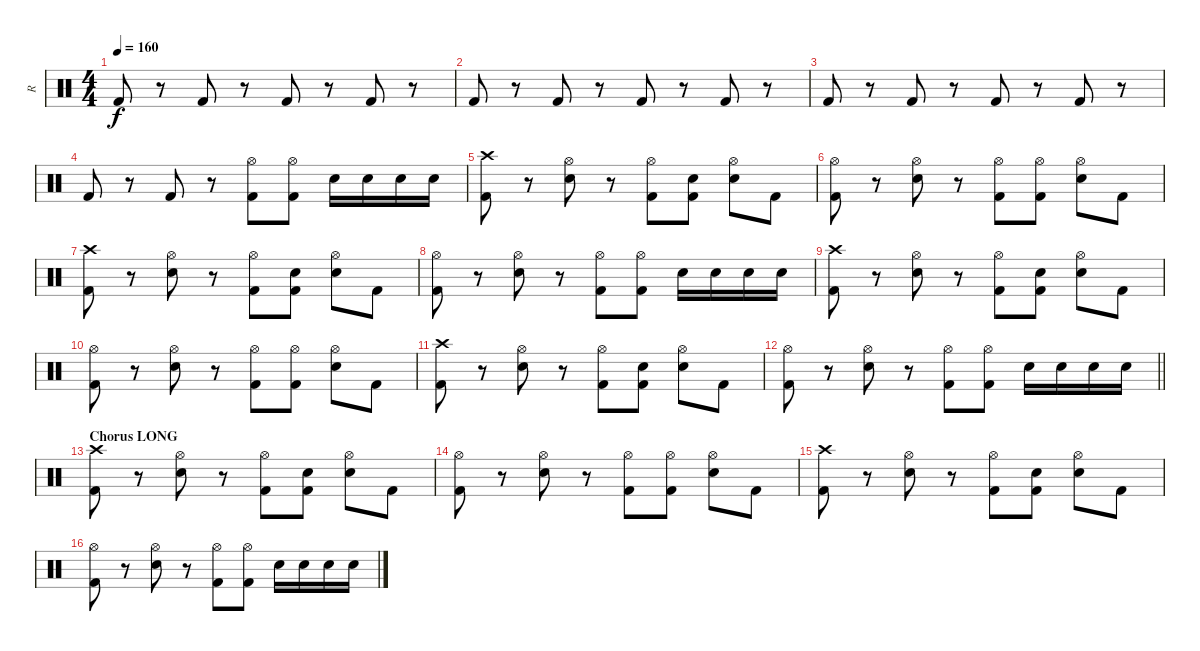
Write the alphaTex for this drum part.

\track ("R" "R") {instrument percussion}
\staff {score}
\articulation defaults
\ts (4 4)
\tempo 160
\clef neutral
\ks c "Kick (hit) 2".8{dy f}
r.8 "Kick (hit) 2".8 r.8 "Kick (hit) 2".8 r.8 "Kick (hit) 2".8 r.8 |
"Kick (hit) 2".8 r.8 "Kick (hit) 2".8 r.8 "Kick (hit) 2".8 r.8 "Kick (hit) 2".8 r.8 |
"Kick (hit) 2".8 r.8 "Kick (hit) 2".8 r.8 "Kick (hit) 2".8 r.8 "Kick (hit) 2".8 r.8 |
"Kick (hit) 2".8 r.8 "Kick (hit) 2".8 r.8 ("Hi-Hat (open)" "Kick (hit) 2").8 ("Hi-Hat (open)" "Kick (hit) 2").8 "Electric Snare (hit)".16 "Electric Snare (hit)".16 "Electric Snare (hit)".16 "Electric Snare (hit)".16 |
("Crash high (hit)" "Kick (hit) 2").8 r.8 ("Hi-Hat (open)" "Electric Snare (hit)").8 r.8 ("Hi-Hat (open)" "Kick (hit) 2").8 ("Electric Snare (hit)" "Kick (hit) 2").8 ("Hi-Hat (open)" "Electric Snare (hit)").8 "Kick (hit) 2".8 |
("Hi-Hat (open)" "Kick (hit) 2").8 r.8 ("Hi-Hat (open)" "Electric Snare (hit)").8 r.8 ("Hi-Hat (open)" "Kick (hit) 2").8 ("Hi-Hat (open)" "Kick (hit) 2").8 ("Hi-Hat (open)" "Electric Snare (hit)").8 "Kick (hit) 2".8 |
("Crash high (hit)" "Kick (hit) 2").8 r.8 ("Hi-Hat (open)" "Electric Snare (hit)").8 r.8 ("Hi-Hat (open)" "Kick (hit) 2").8 ("Electric Snare (hit)" "Kick (hit) 2").8 ("Hi-Hat (open)" "Electric Snare (hit)").8 "Kick (hit) 2".8 |
("Hi-Hat (open)" "Kick (hit) 2").8 r.8 ("Hi-Hat (open)" "Electric Snare (hit)").8 r.8 ("Hi-Hat (open)" "Kick (hit) 2").8 ("Hi-Hat (open)" "Kick (hit) 2").8 "Electric Snare (hit)".16 "Electric Snare (hit)".16 "Electric Snare (hit)".16 "Electric Snare (hit)".16 |
("Crash high (hit)" "Kick (hit) 2").8 r.8 ("Hi-Hat (open)" "Electric Snare (hit)").8 r.8 ("Hi-Hat (open)" "Kick (hit) 2").8 ("Electric Snare (hit)" "Kick (hit) 2").8 ("Hi-Hat (open)" "Electric Snare (hit)").8 "Kick (hit) 2".8 |
("Hi-Hat (open)" "Kick (hit) 2").8 r.8 ("Hi-Hat (open)" "Electric Snare (hit)").8 r.8 ("Hi-Hat (open)" "Kick (hit) 2").8 ("Hi-Hat (open)" "Kick (hit) 2").8 ("Hi-Hat (open)" "Electric Snare (hit)").8 "Kick (hit) 2".8 |
("Crash high (hit)" "Kick (hit) 2").8 r.8 ("Hi-Hat (open)" "Electric Snare (hit)").8 r.8 ("Hi-Hat (open)" "Kick (hit) 2").8 ("Electric Snare (hit)" "Kick (hit) 2").8 ("Hi-Hat (open)" "Electric Snare (hit)").8 "Kick (hit) 2".8 |
\barLineRight lightlight
("Hi-Hat (open)" "Kick (hit) 2").8 r.8 ("Hi-Hat (open)" "Electric Snare (hit)").8 r.8 ("Hi-Hat (open)" "Kick (hit) 2").8 ("Hi-Hat (open)" "Kick (hit) 2").8 "Electric Snare (hit)".16 "Electric Snare (hit)".16 "Electric Snare (hit)".16 "Electric Snare (hit)".16 |
\section ("" "Chorus LONG")
("Crash high (hit)" "Kick (hit) 2").8 r.8 ("Hi-Hat (open)" "Electric Snare (hit)").8 r.8 ("Hi-Hat (open)" "Kick (hit) 2").8 ("Electric Snare (hit)" "Kick (hit) 2").8 ("Hi-Hat (open)" "Electric Snare (hit)").8 "Kick (hit) 2".8 |
("Hi-Hat (open)" "Kick (hit) 2").8 r.8 ("Hi-Hat (open)" "Electric Snare (hit)").8 r.8 ("Hi-Hat (open)" "Kick (hit) 2").8 ("Hi-Hat (open)" "Kick (hit) 2").8 ("Hi-Hat (open)" "Electric Snare (hit)").8 "Kick (hit) 2".8 |
("Crash high (hit)" "Kick (hit) 2").8 r.8 ("Hi-Hat (open)" "Electric Snare (hit)").8 r.8 ("Hi-Hat (open)" "Kick (hit) 2").8 ("Electric Snare (hit)" "Kick (hit) 2").8 ("Hi-Hat (open)" "Electric Snare (hit)").8 "Kick (hit) 2".8 |
("Hi-Hat (open)" "Kick (hit) 2").8 r.8 ("Hi-Hat (open)" "Electric Snare (hit)").8 r.8 ("Hi-Hat (open)" "Kick (hit) 2").8 ("Hi-Hat (open)" "Kick (hit) 2").8 "Electric Snare (hit)".16 "Electric Snare (hit)".16 "Electric Snare (hit)".16 "Electric Snare (hit)".16
